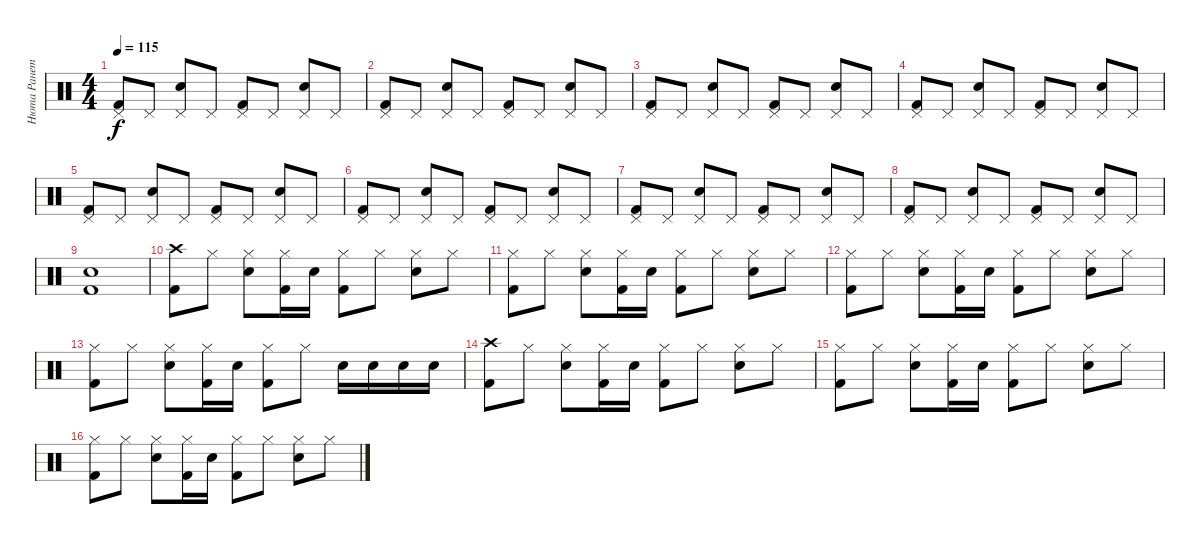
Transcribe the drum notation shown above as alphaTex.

\track ("Нюта Ранетка" "Нюта Ранет") {instrument percussion}
\staff {score}
\articulation defaults
\ts (4 4)
\tempo 115
\clef neutral
\ks c
("Pedal Hi-Hat (hit)" "Kick (hit) 2").8{dy f} "Pedal Hi-Hat (hit)".8 ("Pedal Hi-Hat (hit)" "Electric Snare (hit)").8 "Pedal Hi-Hat (hit)".8 ("Pedal Hi-Hat (hit)" "Kick (hit) 2").8 "Pedal Hi-Hat (hit)".8 ("Pedal Hi-Hat (hit)" "Electric Snare (hit)").8 "Pedal Hi-Hat (hit)".8 |
("Pedal Hi-Hat (hit)" "Kick (hit) 2").8 "Pedal Hi-Hat (hit)".8 ("Pedal Hi-Hat (hit)" "Electric Snare (hit)").8 "Pedal Hi-Hat (hit)".8 ("Pedal Hi-Hat (hit)" "Kick (hit) 2").8 "Pedal Hi-Hat (hit)".8 ("Pedal Hi-Hat (hit)" "Electric Snare (hit)").8 "Pedal Hi-Hat (hit)".8 |
("Pedal Hi-Hat (hit)" "Kick (hit) 2").8 "Pedal Hi-Hat (hit)".8 ("Pedal Hi-Hat (hit)" "Electric Snare (hit)").8 "Pedal Hi-Hat (hit)".8 ("Pedal Hi-Hat (hit)" "Kick (hit) 2").8 "Pedal Hi-Hat (hit)".8 ("Pedal Hi-Hat (hit)" "Electric Snare (hit)").8 "Pedal Hi-Hat (hit)".8 |
("Pedal Hi-Hat (hit)" "Kick (hit) 2").8 "Pedal Hi-Hat (hit)".8 ("Pedal Hi-Hat (hit)" "Electric Snare (hit)").8 "Pedal Hi-Hat (hit)".8 ("Pedal Hi-Hat (hit)" "Kick (hit) 2").8 "Pedal Hi-Hat (hit)".8 ("Pedal Hi-Hat (hit)" "Electric Snare (hit)").8 "Pedal Hi-Hat (hit)".8 |
("Pedal Hi-Hat (hit)" "Kick (hit) 2").8 "Pedal Hi-Hat (hit)".8 ("Pedal Hi-Hat (hit)" "Electric Snare (hit)").8 "Pedal Hi-Hat (hit)".8 ("Pedal Hi-Hat (hit)" "Kick (hit) 2").8 "Pedal Hi-Hat (hit)".8 ("Pedal Hi-Hat (hit)" "Electric Snare (hit)").8 "Pedal Hi-Hat (hit)".8 |
("Pedal Hi-Hat (hit)" "Kick (hit) 2").8 "Pedal Hi-Hat (hit)".8 ("Pedal Hi-Hat (hit)" "Electric Snare (hit)").8 "Pedal Hi-Hat (hit)".8 ("Pedal Hi-Hat (hit)" "Kick (hit) 2").8 "Pedal Hi-Hat (hit)".8 ("Pedal Hi-Hat (hit)" "Electric Snare (hit)").8 "Pedal Hi-Hat (hit)".8 |
("Pedal Hi-Hat (hit)" "Kick (hit) 2").8 "Pedal Hi-Hat (hit)".8 ("Pedal Hi-Hat (hit)" "Electric Snare (hit)").8 "Pedal Hi-Hat (hit)".8 ("Pedal Hi-Hat (hit)" "Kick (hit) 2").8 "Pedal Hi-Hat (hit)".8 ("Pedal Hi-Hat (hit)" "Electric Snare (hit)").8 "Pedal Hi-Hat (hit)".8 |
("Pedal Hi-Hat (hit)" "Kick (hit) 2").8 "Pedal Hi-Hat (hit)".8 ("Pedal Hi-Hat (hit)" "Electric Snare (hit)").8 "Pedal Hi-Hat (hit)".8 ("Pedal Hi-Hat (hit)" "Kick (hit) 2").8 "Pedal Hi-Hat (hit)".8 ("Pedal Hi-Hat (hit)" "Electric Snare (hit)").8 "Pedal Hi-Hat (hit)".8 |
("Electric Snare (hit)" "Kick (hit) 2").1 |
("Crash high (hit)" "Kick (hit) 2").8 "Hi-Hat (closed)".8 ("Hi-Hat (closed)" "Electric Snare (hit)").8 ("Hi-Hat (closed)" "Kick (hit) 2").16 "Electric Snare (hit)".16 ("Hi-Hat (closed)" "Kick (hit) 2").8 "Hi-Hat (closed)".8 ("Hi-Hat (closed)" "Electric Snare (hit)").8 "Hi-Hat (closed)".8 |
("Hi-Hat (closed)" "Kick (hit) 2").8 "Hi-Hat (closed)".8 ("Hi-Hat (closed)" "Electric Snare (hit)").8 ("Hi-Hat (closed)" "Kick (hit) 2").16 "Electric Snare (hit)".16 ("Hi-Hat (closed)" "Kick (hit) 2").8 "Hi-Hat (closed)".8 ("Hi-Hat (closed)" "Electric Snare (hit)").8 "Hi-Hat (closed)".8 |
("Hi-Hat (closed)" "Kick (hit) 2").8 "Hi-Hat (closed)".8 ("Hi-Hat (closed)" "Electric Snare (hit)").8 ("Hi-Hat (closed)" "Kick (hit) 2").16 "Electric Snare (hit)".16 ("Hi-Hat (closed)" "Kick (hit) 2").8 "Hi-Hat (closed)".8 ("Hi-Hat (closed)" "Electric Snare (hit)").8 "Hi-Hat (closed)".8 |
("Hi-Hat (closed)" "Kick (hit) 2").8 "Hi-Hat (closed)".8 ("Hi-Hat (closed)" "Electric Snare (hit)").8 ("Hi-Hat (closed)" "Kick (hit) 2").16 "Electric Snare (hit)".16 ("Hi-Hat (closed)" "Kick (hit) 2").8 "Hi-Hat (closed)".8 "Electric Snare (hit)".16 "Electric Snare (hit)".16 "Electric Snare (hit)".16 "Electric Snare (hit)".16 |
("Crash high (hit)" "Kick (hit) 2").8 "Hi-Hat (closed)".8 ("Hi-Hat (closed)" "Electric Snare (hit)").8 ("Hi-Hat (closed)" "Kick (hit) 2").16 "Electric Snare (hit)".16 ("Hi-Hat (closed)" "Kick (hit) 2").8 "Hi-Hat (closed)".8 ("Hi-Hat (closed)" "Electric Snare (hit)").8 "Hi-Hat (closed)".8 |
("Hi-Hat (closed)" "Kick (hit) 2").8 "Hi-Hat (closed)".8 ("Hi-Hat (closed)" "Electric Snare (hit)").8 ("Hi-Hat (closed)" "Kick (hit) 2").16 "Electric Snare (hit)".16 ("Hi-Hat (closed)" "Kick (hit) 2").8 "Hi-Hat (closed)".8 ("Hi-Hat (closed)" "Electric Snare (hit)").8 "Hi-Hat (closed)".8 |
("Hi-Hat (closed)" "Kick (hit) 2").8 "Hi-Hat (closed)".8 ("Hi-Hat (closed)" "Electric Snare (hit)").8 ("Hi-Hat (closed)" "Kick (hit) 2").16 "Electric Snare (hit)".16 ("Hi-Hat (closed)" "Kick (hit) 2").8 "Hi-Hat (closed)".8 ("Hi-Hat (closed)" "Electric Snare (hit)").8 "Hi-Hat (closed)".8
